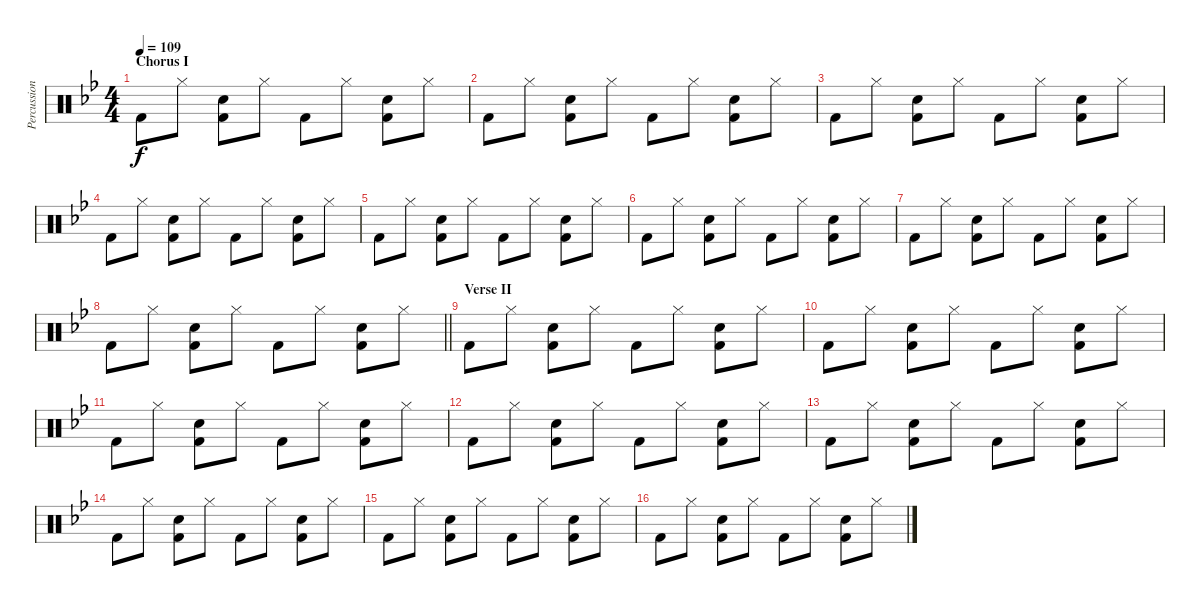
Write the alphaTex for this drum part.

\track ("Percussions" "Percussion") {instrument percussion}
\staff {score}
\articulation defaults
\ts (4 4)
\section ("" "Chorus I")
\tempo 109
\clef neutral
\ks bb "Kick (hit) 2".8{dy f} "Hi-Hat (closed)".8
("Snare (hit) 2" "Kick (hit) 2").8 "Hi-Hat (closed)".8 "Kick (hit) 2".8 "Hi-Hat (closed)".8 ("Snare (hit) 2" "Kick (hit) 2").8 "Hi-Hat (closed)".8 |
"Kick (hit) 2".8 "Hi-Hat (closed)".8 ("Snare (hit) 2" "Kick (hit) 2").8 "Hi-Hat (closed)".8 "Kick (hit) 2".8 "Hi-Hat (closed)".8 ("Snare (hit) 2" "Kick (hit) 2").8 "Hi-Hat (closed)".8 |
"Kick (hit) 2".8 "Hi-Hat (closed)".8 ("Snare (hit) 2" "Kick (hit) 2").8 "Hi-Hat (closed)".8 "Kick (hit) 2".8 "Hi-Hat (closed)".8 ("Snare (hit) 2" "Kick (hit) 2").8 "Hi-Hat (closed)".8 |
"Kick (hit) 2".8 "Hi-Hat (closed)".8 ("Snare (hit) 2" "Kick (hit) 2").8 "Hi-Hat (closed)".8 "Kick (hit) 2".8 "Hi-Hat (closed)".8 ("Snare (hit) 2" "Kick (hit) 2").8 "Hi-Hat (closed)".8 |
"Kick (hit) 2".8 "Hi-Hat (closed)".8 ("Snare (hit) 2" "Kick (hit) 2").8 "Hi-Hat (closed)".8 "Kick (hit) 2".8 "Hi-Hat (closed)".8 ("Snare (hit) 2" "Kick (hit) 2").8 "Hi-Hat (closed)".8 |
"Kick (hit) 2".8 "Hi-Hat (closed)".8 ("Snare (hit) 2" "Kick (hit) 2").8 "Hi-Hat (closed)".8 "Kick (hit) 2".8 "Hi-Hat (closed)".8 ("Snare (hit) 2" "Kick (hit) 2").8 "Hi-Hat (closed)".8 |
"Kick (hit) 2".8 "Hi-Hat (closed)".8 ("Snare (hit) 2" "Kick (hit) 2").8 "Hi-Hat (closed)".8 "Kick (hit) 2".8 "Hi-Hat (closed)".8 ("Snare (hit) 2" "Kick (hit) 2").8 "Hi-Hat (closed)".8 |
\barLineRight lightlight "Kick (hit) 2".8 "Hi-Hat (closed)".8
("Snare (hit) 2" "Kick (hit) 2").8 "Hi-Hat (closed)".8 "Kick (hit) 2".8 "Hi-Hat (closed)".8 ("Snare (hit) 2" "Kick (hit) 2").8 "Hi-Hat (closed)".8 |
\section ("" "Verse II")
"Kick (hit) 2".8 "Hi-Hat (closed)".8 ("Snare (hit) 2" "Kick (hit) 2").8 "Hi-Hat (closed)".8 "Kick (hit) 2".8 "Hi-Hat (closed)".8 ("Snare (hit) 2" "Kick (hit) 2").8 "Hi-Hat (closed)".8 |
"Kick (hit) 2".8 "Hi-Hat (closed)".8 ("Snare (hit) 2" "Kick (hit) 2").8 "Hi-Hat (closed)".8 "Kick (hit) 2".8 "Hi-Hat (closed)".8 ("Snare (hit) 2" "Kick (hit) 2").8 "Hi-Hat (closed)".8 |
"Kick (hit) 2".8 "Hi-Hat (closed)".8 ("Snare (hit) 2" "Kick (hit) 2").8 "Hi-Hat (closed)".8 "Kick (hit) 2".8 "Hi-Hat (closed)".8 ("Snare (hit) 2" "Kick (hit) 2").8 "Hi-Hat (closed)".8 |
"Kick (hit) 2".8 "Hi-Hat (closed)".8 ("Snare (hit) 2" "Kick (hit) 2").8 "Hi-Hat (closed)".8 "Kick (hit) 2".8 "Hi-Hat (closed)".8 ("Snare (hit) 2" "Kick (hit) 2").8 "Hi-Hat (closed)".8 |
"Kick (hit) 2".8 "Hi-Hat (closed)".8 ("Snare (hit) 2" "Kick (hit) 2").8 "Hi-Hat (closed)".8 "Kick (hit) 2".8 "Hi-Hat (closed)".8 ("Snare (hit) 2" "Kick (hit) 2").8 "Hi-Hat (closed)".8 |
"Kick (hit) 2".8 "Hi-Hat (closed)".8 ("Snare (hit) 2" "Kick (hit) 2").8 "Hi-Hat (closed)".8 "Kick (hit) 2".8 "Hi-Hat (closed)".8 ("Snare (hit) 2" "Kick (hit) 2").8 "Hi-Hat (closed)".8 |
"Kick (hit) 2".8 "Hi-Hat (closed)".8 ("Snare (hit) 2" "Kick (hit) 2").8 "Hi-Hat (closed)".8 "Kick (hit) 2".8 "Hi-Hat (closed)".8 ("Snare (hit) 2" "Kick (hit) 2").8 "Hi-Hat (closed)".8 |
"Kick (hit) 2".8 "Hi-Hat (closed)".8 ("Snare (hit) 2" "Kick (hit) 2").8 "Hi-Hat (closed)".8 "Kick (hit) 2".8 "Hi-Hat (closed)".8 ("Snare (hit) 2" "Kick (hit) 2").8 "Hi-Hat (closed)".8
